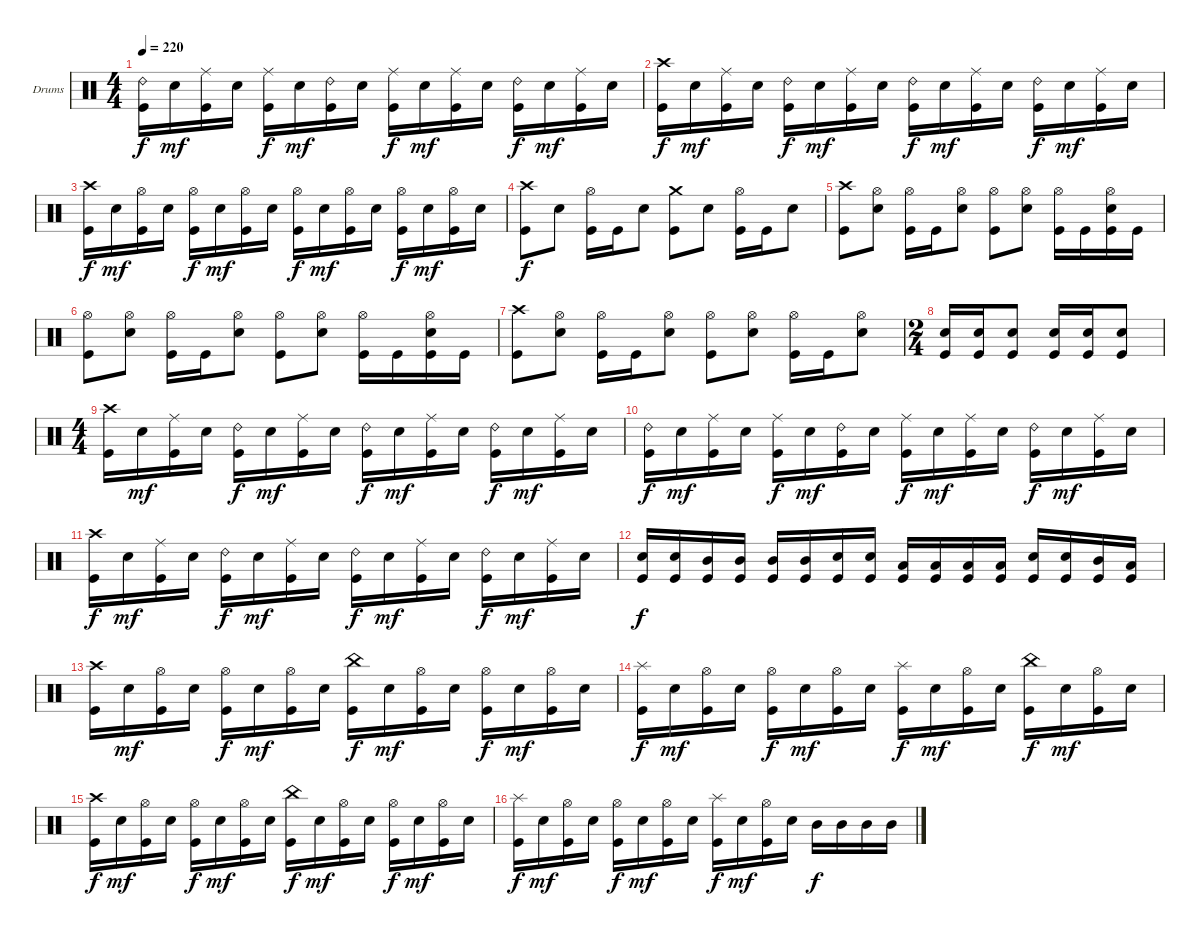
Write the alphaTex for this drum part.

\defaultSystemsLayout 4
\bracketExtendMode groupsimilarinstruments
\firstSystemTrackNameOrientation horizontal
\otherSystemsTrackNameOrientation horizontal
\track ("Drumkit" "Drums") {instrument percussion}
\staff {score}
\articulation defaults
\ts (4 4)
\tempo 220
\clef neutral
\scale
0.333333
\ks c
("Ride (bell) 2" "Kick (hit)").16{dy f} "Snare (hit) 2".16{dy mf} ("Ride (middle)" "Kick (hit)").16 "Snare (hit) 2".16 ("Ride (middle)" "Kick (hit)").16{dy f} "Snare (hit) 2".16{dy mf} ("Ride (bell) 2" "Kick (hit)").16 "Snare (hit) 2".16 ("Ride (middle)" "Kick (hit)").16{dy f} "Snare (hit) 2".16{dy mf} ("Ride (middle)" "Kick (hit)").16 "Snare (hit) 2".16 ("Ride (bell) 2" "Kick (hit)").16{dy f} "Snare (hit) 2".16{dy mf} ("Ride (middle)" "Kick (hit)").16 "Snare (hit) 2".16 |
\scale
0.333333 ("Crash high (hit)" "Kick (hit)").16{dy f} "Snare (hit) 2".16{dy mf} ("Ride (middle)" "Kick (hit)").16 "Snare (hit) 2".16 ("Ride (bell) 2" "Kick (hit)").16{dy f} "Snare (hit) 2".16{dy mf} ("Ride (middle)" "Kick (hit)").16 "Snare (hit) 2".16 ("Ride (bell) 2" "Kick (hit)").16{dy f} "Snare (hit) 2".16{dy mf} ("Ride (middle)" "Kick (hit)").16 "Snare (hit) 2".16 ("Ride (bell) 2" "Kick (hit)").16{dy f} "Snare (hit) 2".16{dy mf} ("Ride (middle)" "Kick (hit)").16 "Snare (hit) 2".16 |
\scale
0.333333 ("Crash high (hit)" "Kick (hit)").16{dy f} "Snare (hit) 2".16{dy mf} ("Hi-Hat (open)" "Kick (hit)").16 "Snare (hit) 2".16 ("Hi-Hat (open)" "Kick (hit)").16{dy f} "Snare (hit) 2".16{dy mf} ("Hi-Hat (open)" "Kick (hit)").16 "Snare (hit) 2".16 ("Hi-Hat (open)" "Kick (hit)").16{dy f} "Snare (hit) 2".16{dy mf} ("Hi-Hat (open)" "Kick (hit)").16 "Snare (hit) 2".16 ("Hi-Hat (open)" "Kick (hit)").16{dy f} "Snare (hit) 2".16{dy mf} ("Hi-Hat (open)" "Kick (hit)").16 "Snare (hit) 2".16 |
\scale
0.333333 ("Crash high (hit)" "Kick (hit)").8{dy f} "Snare (hit) 2".8 ("Hi-Hat (open)" "Kick (hit)").16 "Kick (hit)".16 "Snare (hit) 2".8 ("Crash medium (hit)" "Kick (hit)").8 "Snare (hit) 2".8 ("Hi-Hat (open)" "Kick (hit)").16 "Kick (hit)".16 "Snare (hit) 2".8 |
\scale
0.333333 ("Crash high (hit)" "Kick (hit)").8 ("Hi-Hat (open)" "Snare (hit) 2").8 ("Hi-Hat (open)" "Kick (hit)").16 "Kick (hit)".16 ("Hi-Hat (open)" "Snare (hit) 2").8 ("Hi-Hat (open)" "Kick (hit)").8 ("Hi-Hat (open)" "Snare (hit) 2").8 ("Hi-Hat (open)" "Kick (hit)").16 "Kick (hit)".16 ("Hi-Hat (open)" "Snare (hit) 2" "Kick (hit)").16 "Kick (hit)".16 |
\scale
0.333333 ("Hi-Hat (open)" "Kick (hit)").8 ("Hi-Hat (open)" "Snare (hit) 2").8 ("Hi-Hat (open)" "Kick (hit)").16 "Kick (hit)".16 ("Hi-Hat (open)" "Snare (hit) 2").8 ("Hi-Hat (open)" "Kick (hit)").8 ("Hi-Hat (open)" "Snare (hit) 2").8 ("Hi-Hat (open)" "Kick (hit)").16 "Kick (hit)".16 ("Hi-Hat (open)" "Snare (hit) 2" "Kick (hit)").16 "Kick (hit)".16 |
\scale
0.333333 ("Crash high (hit)" "Kick (hit)").8 ("Hi-Hat (open)" "Snare (hit) 2").8 ("Hi-Hat (open)" "Kick (hit)").16 "Kick (hit)".16 ("Hi-Hat (open)" "Snare (hit) 2").8 ("Hi-Hat (open)" "Kick (hit)").8 ("Hi-Hat (open)" "Snare (hit) 2").8 ("Hi-Hat (open)" "Kick (hit)").16 "Kick (hit)".16 ("Hi-Hat (open)" "Snare (hit) 2").8 |
\ts (2 4)
\scale
0.333333 ("Snare (hit) 2" "Kick (hit)").16 ("Snare (hit) 2" "Kick (hit)").16 ("Snare (hit) 2" "Kick (hit)").8 ("Snare (hit) 2" "Kick (hit)").16 ("Snare (hit) 2" "Kick (hit)").16 ("Snare (hit) 2" "Kick (hit)").8 |
\ts (4 4)
\scale
0.333333 ("Crash high (hit)" "Kick (hit)").16 "Snare (hit) 2".16{dy mf} ("Ride (middle)" "Kick (hit)").16 "Snare (hit) 2".16 ("Ride (bell) 2" "Kick (hit)").16{dy f} "Snare (hit) 2".16{dy mf} ("Ride (middle)" "Kick (hit)").16 "Snare (hit) 2".16 ("Ride (bell) 2" "Kick (hit)").16{dy f} "Snare (hit) 2".16{dy mf} ("Ride (middle)" "Kick (hit)").16 "Snare (hit) 2".16 ("Ride (bell) 2" "Kick (hit)").16{dy f} "Snare (hit) 2".16{dy mf} ("Ride (middle)" "Kick (hit)").16 "Snare (hit) 2".16 |
\scale
0.333333 ("Ride (bell) 2" "Kick (hit)").16{dy f} "Snare (hit) 2".16{dy mf} ("Ride (middle)" "Kick (hit)").16 "Snare (hit) 2".16 ("Ride (middle)" "Kick (hit)").16{dy f} "Snare (hit) 2".16{dy mf} ("Ride (bell) 2" "Kick (hit)").16 "Snare (hit) 2".16 ("Ride (middle)" "Kick (hit)").16{dy f} "Snare (hit) 2".16{dy mf} ("Ride (middle)" "Kick (hit)").16 "Snare (hit) 2".16 ("Ride (bell) 2" "Kick (hit)").16{dy f} "Snare (hit) 2".16{dy mf} ("Ride (middle)" "Kick (hit)").16 "Snare (hit) 2".16 |
\scale
0.333333 ("Crash high (hit)" "Kick (hit)").16{dy f} "Snare (hit) 2".16{dy mf} ("Ride (middle)" "Kick (hit)").16 "Snare (hit) 2".16 ("Ride (bell) 2" "Kick (hit)").16{dy f} "Snare (hit) 2".16{dy mf} ("Ride (middle)" "Kick (hit)").16 "Snare (hit) 2".16 ("Ride (bell) 2" "Kick (hit)").16{dy f} "Snare (hit) 2".16{dy mf} ("Ride (middle)" "Kick (hit)").16 "Snare (hit) 2".16 ("Ride (bell) 2" "Kick (hit)").16{dy f} "Snare (hit) 2".16{dy mf} ("Ride (middle)" "Kick (hit)").16 "Snare (hit) 2".16 |
\scale
0.333333 ("Snare (hit) 2" "Kick (hit)").16{dy f} ("Snare (hit) 2" "Kick (hit)").16 ("Mid Tom (hit)" "Kick (hit)").16 ("Mid Tom (hit)" "Kick (hit)").16 ("Mid Tom (hit)" "Kick (hit)").16 ("Mid Tom (hit)" "Kick (hit)").16 ("Snare (hit) 2" "Kick (hit)").16 ("Snare (hit) 2" "Kick (hit)").16 ("Low Tom (hit)" "Kick (hit)").16 ("Low Tom (hit)" "Kick (hit)").16 ("Low Tom (hit)" "Kick (hit)").16 ("Low Tom (hit)" "Kick (hit)").16 ("Snare (hit) 2" "Kick (hit)").16 ("Snare (hit) 2" "Kick (hit)").16 ("Mid Tom (hit)" "Kick (hit)").16 ("Low Tom (hit)" "Kick (hit)").16 |
\scale
0.333333 ("Crash high (hit)" "Kick (hit)").16 "Snare (hit) 2".16{dy mf} ("Hi-Hat (open)" "Kick (hit)").16 "Snare (hit) 2".16 ("Hi-Hat (open)" "Kick (hit)").16{dy f} "Snare (hit) 2".16{dy mf} ("Hi-Hat (open)" "Kick (hit)").16 "Snare (hit) 2".16 ("China (hit)" "Kick (hit)").16{dy f} "Snare (hit) 2".16{dy mf} ("Hi-Hat (open)" "Kick (hit)").16 "Snare (hit) 2".16 ("Hi-Hat (open)" "Kick (hit)").16{dy f} "Snare (hit) 2".16{dy mf} ("Hi-Hat (open)" "Kick (hit)").16 "Snare (hit) 2".16 |
\scale
0.333333 ("Splash (hit)" "Kick (hit)").16{dy f} "Snare (hit) 2".16{dy mf} ("Hi-Hat (open)" "Kick (hit)").16 "Snare (hit) 2".16 ("Hi-Hat (open)" "Kick (hit)").16{dy f} "Snare (hit) 2".16{dy mf} ("Hi-Hat (open)" "Kick (hit)").16 "Snare (hit) 2".16 ("Splash (hit)" "Kick (hit)").16{dy f} "Snare (hit) 2".16{dy mf} ("Hi-Hat (open)" "Kick (hit)").16 "Snare (hit) 2".16 ("China (hit)" "Kick (hit)").16{dy f} "Snare (hit) 2".16{dy mf} ("Hi-Hat (open)" "Kick (hit)").16 "Snare (hit) 2".16 |
\scale
0.333333 ("Crash high (hit)" "Kick (hit)").16{dy f} "Snare (hit) 2".16{dy mf} ("Hi-Hat (open)" "Kick (hit)").16 "Snare (hit) 2".16 ("Hi-Hat (open)" "Kick (hit)").16{dy f} "Snare (hit) 2".16{dy mf} ("Hi-Hat (open)" "Kick (hit)").16 "Snare (hit) 2".16 ("China (hit)" "Kick (hit)").16{dy f} "Snare (hit) 2".16{dy mf} ("Hi-Hat (open)" "Kick (hit)").16 "Snare (hit) 2".16 ("Hi-Hat (open)" "Kick (hit)").16{dy f} "Snare (hit) 2".16{dy mf} ("Hi-Hat (open)" "Kick (hit)").16 "Snare (hit) 2".16 |
\scale
0.333333 ("Splash (hit)" "Kick (hit)").16{dy f} "Snare (hit) 2".16{dy mf} ("Hi-Hat (open)" "Kick (hit)").16 "Snare (hit) 2".16 ("Hi-Hat (open)" "Kick (hit)").16{dy f} "Snare (hit) 2".16{dy mf} ("Hi-Hat (open)" "Kick (hit)").16 "Snare (hit) 2".16 ("Splash (hit)" "Kick (hit)").16{dy f} "Snare (hit) 2".16{dy mf} ("Hi-Hat (open)" "Kick (hit)").16 "Snare (hit) 2".16 "Mid Tom (hit)".16{dy f} "Mid Tom (hit)".16 "Mid Tom (hit)".16 "Mid Tom (hit)".16
